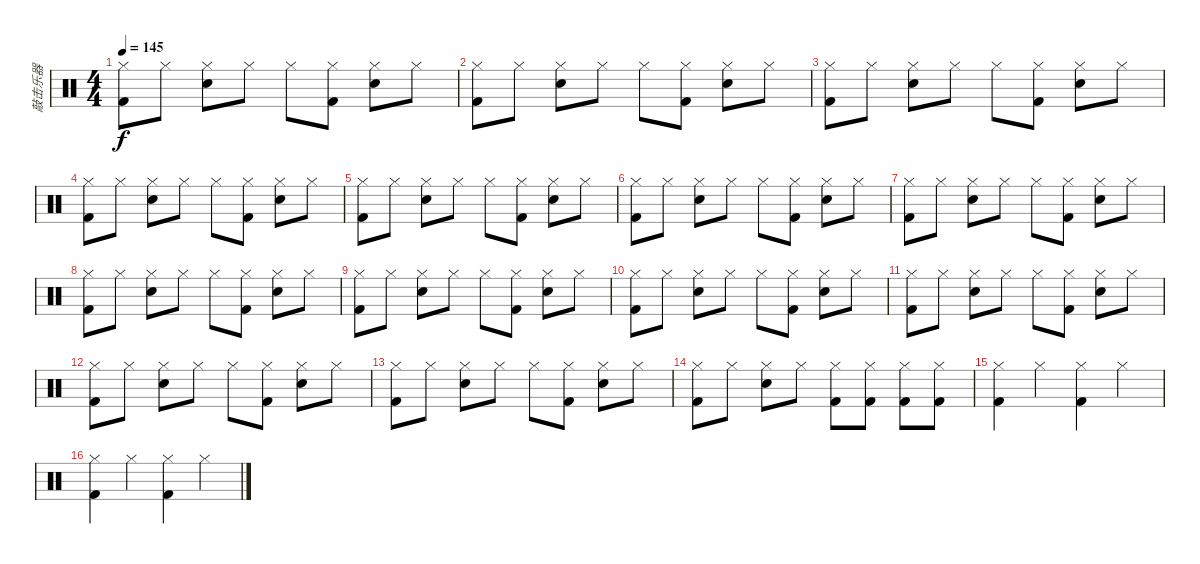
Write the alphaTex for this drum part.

\track ("敲击乐器" "敲击乐器") {instrument percussion}
\staff {score}
\articulation defaults
\ts (4 4)
\tempo 145
\clef neutral
\ks c
("Hi-Hat (closed)" "Kick (hit) 2").8{dy f} "Hi-Hat (closed)".8 ("Hi-Hat (closed)" "Snare (hit) 2").8 "Hi-Hat (closed)".8 "Hi-Hat (closed)".8 ("Hi-Hat (closed)" "Kick (hit) 2").8 ("Hi-Hat (closed)" "Snare (hit) 2").8 "Hi-Hat (closed)".8 |
("Hi-Hat (closed)" "Kick (hit) 2").8 "Hi-Hat (closed)".8 ("Hi-Hat (closed)" "Snare (hit) 2").8 "Hi-Hat (closed)".8 "Hi-Hat (closed)".8 ("Hi-Hat (closed)" "Kick (hit) 2").8 ("Hi-Hat (closed)" "Snare (hit) 2").8 "Hi-Hat (closed)".8 |
("Hi-Hat (closed)" "Kick (hit) 2").8 "Hi-Hat (closed)".8 ("Hi-Hat (closed)" "Snare (hit) 2").8 "Hi-Hat (closed)".8 "Hi-Hat (closed)".8 ("Hi-Hat (closed)" "Kick (hit) 2").8 ("Hi-Hat (closed)" "Snare (hit) 2").8 "Hi-Hat (closed)".8 |
("Hi-Hat (closed)" "Kick (hit) 2").8 "Hi-Hat (closed)".8 ("Hi-Hat (closed)" "Snare (hit) 2").8 "Hi-Hat (closed)".8 "Hi-Hat (closed)".8 ("Hi-Hat (closed)" "Kick (hit) 2").8 ("Hi-Hat (closed)" "Snare (hit) 2").8 "Hi-Hat (closed)".8 |
("Hi-Hat (closed)" "Kick (hit) 2").8 "Hi-Hat (closed)".8 ("Hi-Hat (closed)" "Snare (hit) 2").8 "Hi-Hat (closed)".8 "Hi-Hat (closed)".8 ("Hi-Hat (closed)" "Kick (hit) 2").8 ("Hi-Hat (closed)" "Snare (hit) 2").8 "Hi-Hat (closed)".8 |
("Hi-Hat (closed)" "Kick (hit) 2").8 "Hi-Hat (closed)".8 ("Hi-Hat (closed)" "Snare (hit) 2").8 "Hi-Hat (closed)".8 "Hi-Hat (closed)".8 ("Hi-Hat (closed)" "Kick (hit) 2").8 ("Hi-Hat (closed)" "Snare (hit) 2").8 "Hi-Hat (closed)".8 |
("Hi-Hat (closed)" "Kick (hit) 2").8 "Hi-Hat (closed)".8 ("Hi-Hat (closed)" "Snare (hit) 2").8 "Hi-Hat (closed)".8 "Hi-Hat (closed)".8 ("Hi-Hat (closed)" "Kick (hit) 2").8 ("Hi-Hat (closed)" "Snare (hit) 2").8 "Hi-Hat (closed)".8 |
("Hi-Hat (closed)" "Kick (hit) 2").8 "Hi-Hat (closed)".8 ("Hi-Hat (closed)" "Snare (hit) 2").8 "Hi-Hat (closed)".8 "Hi-Hat (closed)".8 ("Hi-Hat (closed)" "Kick (hit) 2").8 ("Hi-Hat (closed)" "Snare (hit) 2").8 "Hi-Hat (closed)".8 |
("Hi-Hat (closed)" "Kick (hit) 2").8 "Hi-Hat (closed)".8 ("Hi-Hat (closed)" "Snare (hit) 2").8 "Hi-Hat (closed)".8 "Hi-Hat (closed)".8 ("Hi-Hat (closed)" "Kick (hit) 2").8 ("Hi-Hat (closed)" "Snare (hit) 2").8 "Hi-Hat (closed)".8 |
("Hi-Hat (closed)" "Kick (hit) 2").8 "Hi-Hat (closed)".8 ("Hi-Hat (closed)" "Snare (hit) 2").8 "Hi-Hat (closed)".8 "Hi-Hat (closed)".8 ("Hi-Hat (closed)" "Kick (hit) 2").8 ("Hi-Hat (closed)" "Snare (hit) 2").8 "Hi-Hat (closed)".8 |
("Hi-Hat (closed)" "Kick (hit) 2").8 "Hi-Hat (closed)".8 ("Hi-Hat (closed)" "Snare (hit) 2").8 "Hi-Hat (closed)".8 "Hi-Hat (closed)".8 ("Hi-Hat (closed)" "Kick (hit) 2").8 ("Hi-Hat (closed)" "Snare (hit) 2").8 "Hi-Hat (closed)".8 |
("Hi-Hat (closed)" "Kick (hit) 2").8 "Hi-Hat (closed)".8 ("Hi-Hat (closed)" "Snare (hit) 2").8 "Hi-Hat (closed)".8 "Hi-Hat (closed)".8 ("Hi-Hat (closed)" "Kick (hit) 2").8 ("Hi-Hat (closed)" "Snare (hit) 2").8 "Hi-Hat (closed)".8 |
("Hi-Hat (closed)" "Kick (hit) 2").8 "Hi-Hat (closed)".8 ("Hi-Hat (closed)" "Snare (hit) 2").8 "Hi-Hat (closed)".8 "Hi-Hat (closed)".8 ("Hi-Hat (closed)" "Kick (hit) 2").8 ("Hi-Hat (closed)" "Snare (hit) 2").8 "Hi-Hat (closed)".8 |
("Hi-Hat (closed)" "Kick (hit) 2").8 "Hi-Hat (closed)".8 ("Hi-Hat (closed)" "Snare (hit) 2").8 "Hi-Hat (closed)".8 ("Hi-Hat (closed)" "Kick (hit) 2").8 ("Hi-Hat (closed)" "Kick (hit) 2").8 ("Hi-Hat (closed)" "Kick (hit) 2").8 ("Hi-Hat (closed)" "Kick (hit) 2").8 |
("Hi-Hat (closed)" "Kick (hit) 2").4 "Hi-Hat (closed)".4 ("Hi-Hat (closed)" "Kick (hit) 2").4 "Hi-Hat (closed)".4 |
("Hi-Hat (closed)" "Kick (hit) 2").4 "Hi-Hat (closed)".4 ("Hi-Hat (closed)" "Kick (hit) 2").4 "Hi-Hat (closed)".4
